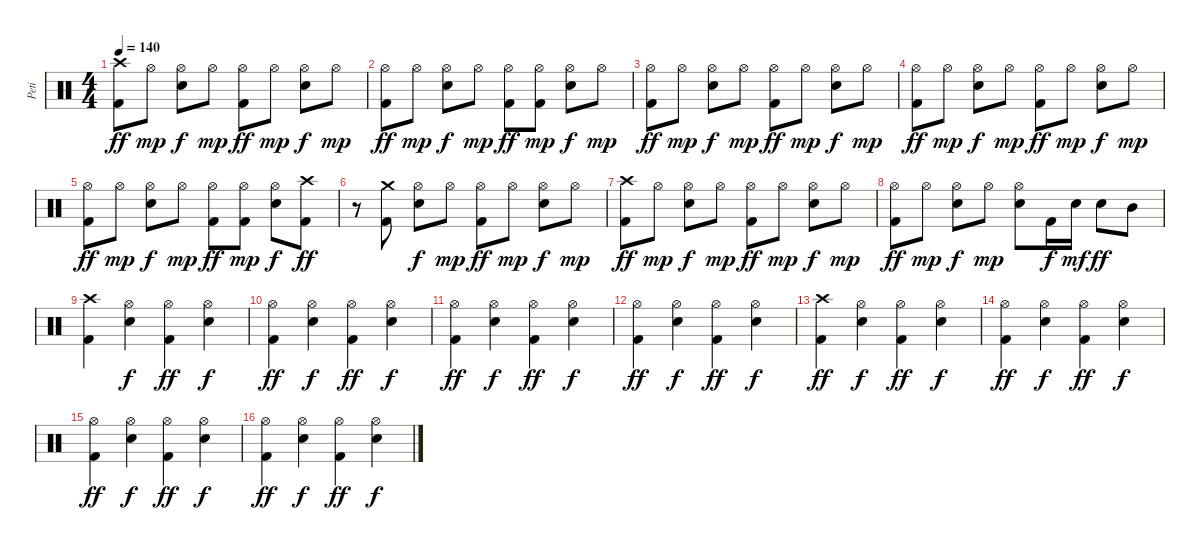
\track ("Peti" "Peti") {instrument percussion}
\staff {score}
\articulation defaults
\ts (4 4)
\tempo 140
\clef neutral
\ks c
("Crash high (hit)" "Kick (hit) 2").8{dy ff} "Hi-Hat (open)".8{dy mp} ("Hi-Hat (open)" "Snare (hit) 2").8{dy f} "Hi-Hat (open)".8{dy mp} ("Hi-Hat (open)" "Kick (hit) 2").8{dy ff} "Hi-Hat (open)".8{dy mp} ("Hi-Hat (open)" "Snare (hit) 2").8{dy f} "Hi-Hat (open)".8{dy mp} |
("Hi-Hat (open)" "Kick (hit) 2").8{dy ff} "Hi-Hat (open)".8{dy mp} ("Hi-Hat (open)" "Snare (hit) 2").8{dy f} "Hi-Hat (open)".8{dy mp} ("Hi-Hat (open)" "Kick (hit) 2").8{dy ff} ("Hi-Hat (open)" "Kick (hit) 2").8{dy mp} ("Hi-Hat (open)" "Snare (hit) 2").8{dy f} "Hi-Hat (open)".8{dy mp} |
("Hi-Hat (open)" "Kick (hit) 2").8{dy ff} "Hi-Hat (open)".8{dy mp} ("Hi-Hat (open)" "Snare (hit) 2").8{dy f} "Hi-Hat (open)".8{dy mp} ("Hi-Hat (open)" "Kick (hit) 2").8{dy ff} "Hi-Hat (open)".8{dy mp} ("Hi-Hat (open)" "Snare (hit) 2").8{dy f} "Hi-Hat (open)".8{dy mp} |
("Hi-Hat (open)" "Kick (hit) 2").8{dy ff} "Hi-Hat (open)".8{dy mp} ("Hi-Hat (open)" "Snare (hit) 2").8{dy f} "Hi-Hat (open)".8{dy mp} ("Hi-Hat (open)" "Kick (hit) 2").8{dy ff} "Hi-Hat (open)".8{dy mp} ("Hi-Hat (open)" "Snare (hit) 2").8{dy f} "Hi-Hat (open)".8{dy mp} |
("Hi-Hat (open)" "Kick (hit) 2").8{dy ff} "Hi-Hat (open)".8{dy mp} ("Hi-Hat (open)" "Snare (hit) 2").8{dy f} "Hi-Hat (open)".8{dy mp} ("Hi-Hat (open)" "Kick (hit) 2").8{dy ff} ("Hi-Hat (open)" "Kick (hit) 2").8{dy mp} ("Hi-Hat (open)" "Snare (hit) 2").8{dy f} ("Crash high (hit)" "Kick (hit) 2").8{dy ff} |
r.8 ("Crash medium (hit)" "Kick (hit) 2").8 ("Hi-Hat (open)" "Snare (hit) 2").8{dy f} "Hi-Hat (open)".8{dy mp} ("Hi-Hat (open)" "Kick (hit) 2").8{dy ff} "Hi-Hat (open)".8{dy mp} ("Hi-Hat (open)" "Snare (hit) 2").8{dy f} "Hi-Hat (open)".8{dy mp} |
("Crash high (hit)" "Kick (hit) 2").8{dy ff} "Hi-Hat (open)".8{dy mp} ("Hi-Hat (open)" "Snare (hit) 2").8{dy f} "Hi-Hat (open)".8{dy mp} ("Hi-Hat (open)" "Kick (hit) 2").8{dy ff} "Hi-Hat (open)".8{dy mp} ("Hi-Hat (open)" "Snare (hit) 2").8{dy f} "Hi-Hat (open)".8{dy mp} |
("Hi-Hat (open)" "Kick (hit) 2").8{dy ff} "Hi-Hat (open)".8{dy mp} ("Hi-Hat (open)" "Snare (hit) 2").8{dy f} "Hi-Hat (open)".8{dy mp} ("Hi-Hat (open)" "Snare (hit) 2").8 "Kick (hit) 2".16{dy f} "Snare (hit) 2".16{dy mf} "Snare (hit) 2".8{dy ff} "Mid Tom (hit)".8 |
("Crash high (hit)" "Kick (hit) 2").4 ("Hi-Hat (open)" "Snare (hit) 2").4{dy f} ("Hi-Hat (open)" "Kick (hit) 2").4{dy ff} ("Hi-Hat (open)" "Snare (hit) 2").4{dy f} |
("Hi-Hat (open)" "Kick (hit) 2").4{dy ff} ("Hi-Hat (open)" "Snare (hit) 2").4{dy f} ("Hi-Hat (open)" "Kick (hit) 2").4{dy ff} ("Hi-Hat (open)" "Snare (hit) 2").4{dy f} |
("Hi-Hat (open)" "Kick (hit) 2").4{dy ff} ("Hi-Hat (open)" "Snare (hit) 2").4{dy f} ("Hi-Hat (open)" "Kick (hit) 2").4{dy ff} ("Hi-Hat (open)" "Snare (hit) 2").4{dy f} |
("Hi-Hat (open)" "Kick (hit) 2").4{dy ff} ("Hi-Hat (open)" "Snare (hit) 2").4{dy f} ("Hi-Hat (open)" "Kick (hit) 2").4{dy ff} ("Hi-Hat (open)" "Snare (hit) 2").4{dy f} |
("Crash high (hit)" "Kick (hit) 2").4{dy ff} ("Hi-Hat (open)" "Snare (hit) 2").4{dy f} ("Hi-Hat (open)" "Kick (hit) 2").4{dy ff} ("Hi-Hat (open)" "Snare (hit) 2").4{dy f} |
("Hi-Hat (open)" "Kick (hit) 2").4{dy ff} ("Hi-Hat (open)" "Snare (hit) 2").4{dy f} ("Hi-Hat (open)" "Kick (hit) 2").4{dy ff} ("Hi-Hat (open)" "Snare (hit) 2").4{dy f} |
("Hi-Hat (open)" "Kick (hit) 2").4{dy ff} ("Hi-Hat (open)" "Snare (hit) 2").4{dy f} ("Hi-Hat (open)" "Kick (hit) 2").4{dy ff} ("Hi-Hat (open)" "Snare (hit) 2").4{dy f} |
("Hi-Hat (open)" "Kick (hit) 2").4{dy ff} ("Hi-Hat (open)" "Snare (hit) 2").4{dy f} ("Hi-Hat (open)" "Kick (hit) 2").4{dy ff} ("Hi-Hat (open)" "Snare (hit) 2").4{dy f}
